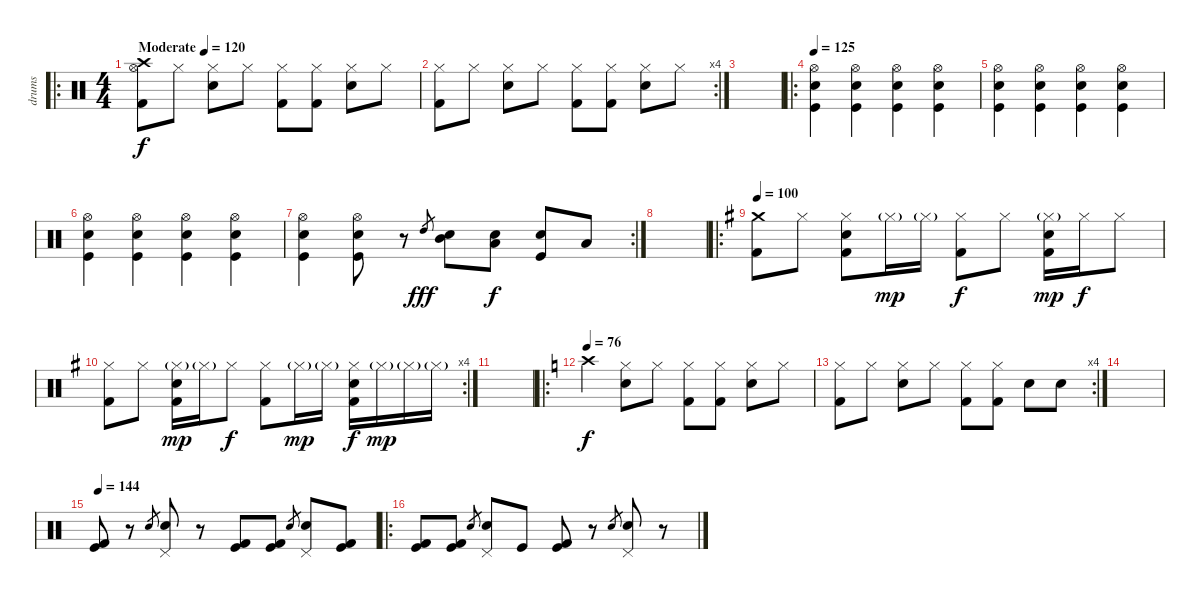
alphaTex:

\track ("drums" "drums") {instrument percussion}
\staff {score}
\articulation defaults
\ro
\ts (4 4)
\tempo (120 "Moderate")
\tempo 132
\tempo (120 "Moderate")
\clef neutral
\ks c
("Hi-Hat (open)" "Crash high (hit)" "Kick (hit) 2").8{dy f} "Hi-Hat (closed)".8 ("Hi-Hat (closed)" "Snare (hit) 2").8 "Hi-Hat (closed)".8 ("Hi-Hat (closed)" "Kick (hit) 2").8 ("Hi-Hat (closed)" "Kick (hit) 2").8 ("Hi-Hat (closed)" "Snare (hit) 2").8 "Hi-Hat (closed)".8 |
\rc 4
("Hi-Hat (closed)" "Kick (hit) 2").8 "Hi-Hat (closed)".8 ("Hi-Hat (closed)" "Snare (hit) 2").8 "Hi-Hat (closed)".8 ("Hi-Hat (closed)" "Kick (hit) 2").8 ("Hi-Hat (closed)" "Kick (hit) 2").8 ("Hi-Hat (closed)" "Snare (hit) 2").8 "Hi-Hat (closed)".8 |
|
\ro
\tempo 125
("Hi-Hat (open)" "Snare (hit) 2" "Kick (hit)").4 ("Hi-Hat (open)" "Snare (hit) 2" "Kick (hit)").4 ("Hi-Hat (open)" "Snare (hit) 2" "Kick (hit)").4 ("Hi-Hat (open)" "Snare (hit) 2" "Kick (hit)").4 |
("Hi-Hat (open)" "Snare (hit) 2" "Kick (hit)").4 ("Hi-Hat (open)" "Snare (hit) 2" "Kick (hit)").4 ("Hi-Hat (open)" "Snare (hit) 2" "Kick (hit)").4 ("Hi-Hat (open)" "Snare (hit) 2" "Kick (hit)").4 |
("Hi-Hat (open)" "Snare (hit) 2" "Kick (hit)").4 ("Hi-Hat (open)" "Snare (hit) 2" "Kick (hit)").4 ("Hi-Hat (open)" "Snare (hit) 2" "Kick (hit)").4 ("Hi-Hat (open)" "Snare (hit) 2" "Kick (hit)").4 |
\rc 2
("Hi-Hat (open)" "Snare (hit) 2" "Kick (hit)").4 ("Hi-Hat (open)" "Snare (hit) 2" "Kick (hit)").8 r.8 "High Tom (hit)".8{gr dy fff} ("Mid Tom (hit)" "Snare (hit) 2").8 ("Low Tom (hit)" "Snare (hit) 2").8{dy f} ("Snare (hit) 2" "Kick (hit)").8 "Low Tom (hit)".8 |
|
\ro
\tempo 100
\ks eminor
("Crash medium (hit)" "Kick (hit) 2").8 "Hi-Hat (closed)".8 ("Hi-Hat (closed)" "Snare (hit) 2" "Kick (hit) 2").8 "Hi-Hat (closed)"{g}.16{dy mp} "Hi-Hat (closed)"{g}.16 ("Hi-Hat (closed)" "Kick (hit) 2").8{dy f} "Hi-Hat (closed)".8 ("Hi-Hat (closed)"{g} "Snare (hit) 2" "Kick (hit) 2").16{dy mp} "Hi-Hat (closed)".16{dy f} "Hi-Hat (closed)".8 |
\rc 4
("Hi-Hat (closed)" "Kick (hit) 2").8 "Hi-Hat (closed)".8 ("Hi-Hat (closed)"{g} "Snare (hit) 2" "Kick (hit) 2").16{dy mp} "Hi-Hat (closed)"{g}.16 "Hi-Hat (closed)".8{dy f} ("Hi-Hat (closed)" "Kick (hit) 2").8 "Hi-Hat (closed)"{g}.16{dy mp} "Hi-Hat (closed)"{g}.16 ("Hi-Hat (closed)" "Snare (hit) 2" "Kick (hit) 2").16{dy f} "Hi-Hat (closed)"{g}.16{dy mp} "Hi-Hat (closed)"{g}.16 "Hi-Hat (closed)"{g}.16 |
|
\ro
\tempo 76
\ks c "Crash high (hit)".4{dy f}
("Snare (hit) 2" "Hi-Hat (closed)").8 "Hi-Hat (closed)".8 ("Kick (hit) 2" "Hi-Hat (closed)").8 ("Kick (hit) 2" "Hi-Hat (closed)").8 ("Snare (hit) 2" "Hi-Hat (closed)").8 "Hi-Hat (closed)".8 |
\rc 4
("Kick (hit) 2" "Hi-Hat (closed)").8 "Hi-Hat (closed)".8 ("Snare (hit) 2" "Hi-Hat (closed)").8 "Hi-Hat (closed)".8 ("Kick (hit) 2" "Hi-Hat (closed)").8 ("Kick (hit) 2" "Hi-Hat (closed)").8 "Snare (hit) 2".8 "Snare (hit) 2".8 |
|
\tempo 144
("Kick (hit)" "Kick (hit) 2").8 r.8 "Snare (hit) 2".8{gr} ("Pedal Hi-Hat (hit)" "Snare (hit) 2").8 r.8 ("Kick (hit)" "Kick (hit) 2").8 ("Kick (hit)" "Kick (hit) 2").8 "Snare (hit) 2".8{gr} ("Pedal Hi-Hat (hit)" "Snare (hit) 2").8 ("Kick (hit)" "Kick (hit) 2").8 |
\ro
("Kick (hit)" "Kick (hit) 2").8 ("Kick (hit)" "Kick (hit) 2").8 "Snare (hit) 2".8{gr} ("Pedal Hi-Hat (hit)" "Snare (hit) 2").8 "Kick (hit)".8 ("Kick (hit)" "Kick (hit) 2").8 r.8 "Snare (hit) 2".8{gr} ("Pedal Hi-Hat (hit)" "Snare (hit) 2").8 r.8
